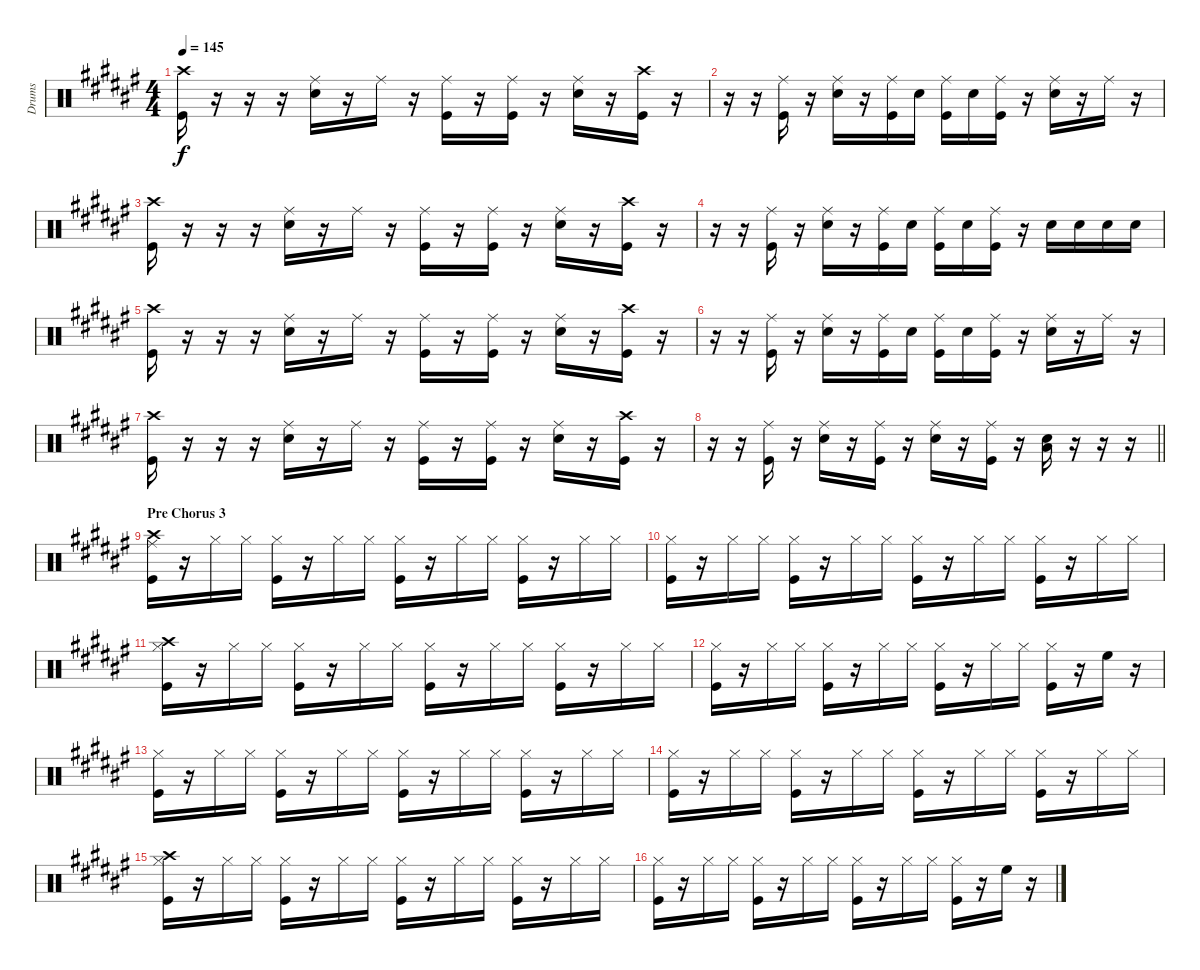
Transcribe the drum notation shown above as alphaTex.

\track ("Drums" "Drums") {instrument percussion}
\staff {score}
\articulation defaults
\ts (4 4)
\tempo 145
\clef neutral
\ks f#
("Kick (hit)" "Crash high (hit)").16{dy f} r.16 r.16 r.16 ("Snare (hit) 2" "Ride (middle)").16 r.16 "Ride (middle)".16 r.16 ("Kick (hit)" "Ride (middle)").16 r.16 ("Kick (hit)" "Ride (middle)").16 r.16 ("Snare (hit) 2" "Ride (middle)").16 r.16 ("Kick (hit)" "Crash high (hit)").16 r.16 |
r.16 r.16 ("Kick (hit)" "Ride (middle)").16 r.16 ("Snare (hit) 2" "Ride (middle)").16 r.16 ("Kick (hit)" "Ride (middle)").16 "Snare (hit) 2".16 ("Kick (hit)" "Ride (middle)").16 "Snare (hit) 2".16 ("Kick (hit)" "Ride (middle)").16 r.16 ("Snare (hit) 2" "Ride (middle)").16 r.16 "Ride (middle)".16 r.16 |
("Kick (hit)" "Crash high (hit)").16 r.16 r.16 r.16 ("Snare (hit) 2" "Ride (middle)").16 r.16 "Ride (middle)".16 r.16 ("Kick (hit)" "Ride (middle)").16 r.16 ("Kick (hit)" "Ride (middle)").16 r.16 ("Snare (hit) 2" "Ride (middle)").16 r.16 ("Kick (hit)" "Crash high (hit)").16 r.16 |
r.16 r.16 ("Kick (hit)" "Ride (middle)").16 r.16 ("Snare (hit) 2" "Ride (middle)").16 r.16 ("Kick (hit)" "Ride (middle)").16 "Snare (hit) 2".16 ("Kick (hit)" "Ride (middle)").16 "Snare (hit) 2".16 ("Kick (hit)" "Ride (middle)").16 r.16 "Snare (hit) 2".16 "Snare (hit) 2".16 "Snare (hit) 2".16 "Snare (hit) 2".16 |
("Kick (hit)" "Crash high (hit)").16 r.16 r.16 r.16 ("Snare (hit) 2" "Ride (middle)").16 r.16 "Ride (middle)".16 r.16 ("Kick (hit)" "Ride (middle)").16 r.16 ("Kick (hit)" "Ride (middle)").16 r.16 ("Snare (hit) 2" "Ride (middle)").16 r.16 ("Kick (hit)" "Crash high (hit)").16 r.16 |
r.16 r.16 ("Kick (hit)" "Ride (middle)").16 r.16 ("Snare (hit) 2" "Ride (middle)").16 r.16 ("Kick (hit)" "Ride (middle)").16 "Snare (hit) 2".16 ("Kick (hit)" "Ride (middle)").16 "Snare (hit) 2".16 ("Kick (hit)" "Ride (middle)").16 r.16 ("Snare (hit) 2" "Ride (middle)").16 r.16 "Ride (middle)".16 r.16 |
("Kick (hit)" "Crash high (hit)").16 r.16 r.16 r.16 ("Snare (hit) 2" "Ride (middle)").16 r.16 "Ride (middle)".16 r.16 ("Kick (hit)" "Ride (middle)").16 r.16 ("Kick (hit)" "Ride (middle)").16 r.16 ("Snare (hit) 2" "Ride (middle)").16 r.16 ("Kick (hit)" "Crash high (hit)").16 r.16 |
\barLineRight lightlight
r.16 r.16 ("Kick (hit)" "Ride (middle)").16 r.16 ("Snare (hit) 2" "Ride (middle)").16 r.16 ("Kick (hit)" "Ride (middle)").16 r.16 ("Snare (hit) 2" "Ride (middle)").16 r.16 ("Kick (hit)" "Ride (middle)").16 r.16 ("Snare (hit) 2" "Low Floor Tom (hit)").16 r.16 r.16 r.16 |
\section ("" "Pre Chorus 3")
("Crash high (hit)" "Kick (hit)" "Ride (middle)").16 r.16 "Hi-Hat (closed)".16 "Hi-Hat (closed)".16 ("Hi-Hat (closed)" "Kick (hit)").16 r.16 "Hi-Hat (closed)".16 "Hi-Hat (closed)".16 ("Hi-Hat (closed)" "Kick (hit)").16 r.16 "Hi-Hat (closed)".16 "Hi-Hat (closed)".16 ("Hi-Hat (closed)" "Kick (hit)").16 r.16 "Hi-Hat (closed)".16 "Hi-Hat (closed)".16 |
("Hi-Hat (closed)" "Kick (hit)").16 r.16 "Hi-Hat (closed)".16 "Hi-Hat (closed)".16 ("Hi-Hat (closed)" "Kick (hit)").16 r.16 "Hi-Hat (closed)".16 "Hi-Hat (closed)".16 ("Hi-Hat (closed)" "Kick (hit)").16 r.16 "Hi-Hat (closed)".16 "Hi-Hat (closed)".16 ("Hi-Hat (closed)" "Kick (hit)").16 r.16 "Hi-Hat (closed)".16 "Hi-Hat (closed)".16 |
("Hi-Hat (closed)" "Kick (hit)" "Crash high (hit)").16 r.16 "Hi-Hat (closed)".16 "Hi-Hat (closed)".16 ("Hi-Hat (closed)" "Kick (hit)").16 r.16 "Hi-Hat (closed)".16 "Hi-Hat (closed)".16 ("Hi-Hat (closed)" "Kick (hit)").16 r.16 "Hi-Hat (closed)".16 "Hi-Hat (closed)".16 ("Hi-Hat (closed)" "Kick (hit)").16 r.16 "Hi-Hat (closed)".16 "Hi-Hat (closed)".16 |
("Hi-Hat (closed)" "Kick (hit)").16 r.16 "Hi-Hat (closed)".16 "Hi-Hat (closed)".16 ("Hi-Hat (closed)" "Kick (hit)").16 r.16 "Hi-Hat (closed)".16 "Hi-Hat (closed)".16 ("Hi-Hat (closed)" "Kick (hit)").16 r.16 "Hi-Hat (closed)".16 "Hi-Hat (closed)".16 ("Hi-Hat (closed)" "Kick (hit)").16 r.16 "High Floor Tom (hit)".16 r.16 |
("Hi-Hat (closed)" "Kick (hit)").16 r.16 "Hi-Hat (closed)".16 "Hi-Hat (closed)".16 ("Hi-Hat (closed)" "Kick (hit)").16 r.16 "Hi-Hat (closed)".16 "Hi-Hat (closed)".16 ("Hi-Hat (closed)" "Kick (hit)").16 r.16 "Hi-Hat (closed)".16 "Hi-Hat (closed)".16 ("Hi-Hat (closed)" "Kick (hit)").16 r.16 "Hi-Hat (closed)".16 "Hi-Hat (closed)".16 |
("Hi-Hat (closed)" "Kick (hit)").16 r.16 "Hi-Hat (closed)".16 "Hi-Hat (closed)".16 ("Hi-Hat (closed)" "Kick (hit)").16 r.16 "Hi-Hat (closed)".16 "Hi-Hat (closed)".16 ("Hi-Hat (closed)" "Kick (hit)").16 r.16 "Hi-Hat (closed)".16 "Hi-Hat (closed)".16 ("Hi-Hat (closed)" "Kick (hit)").16 r.16 "Hi-Hat (closed)".16 "Hi-Hat (closed)".16 |
("Hi-Hat (closed)" "Kick (hit)" "Crash high (hit)").16 r.16 "Hi-Hat (closed)".16 "Hi-Hat (closed)".16 ("Hi-Hat (closed)" "Kick (hit)").16 r.16 "Hi-Hat (closed)".16 "Hi-Hat (closed)".16 ("Hi-Hat (closed)" "Kick (hit)").16 r.16 "Hi-Hat (closed)".16 "Hi-Hat (closed)".16 ("Hi-Hat (closed)" "Kick (hit)").16 r.16 "Hi-Hat (closed)".16 "Hi-Hat (closed)".16 |
("Hi-Hat (closed)" "Kick (hit)").16 r.16 "Hi-Hat (closed)".16 "Hi-Hat (closed)".16 ("Hi-Hat (closed)" "Kick (hit)").16 r.16 "Hi-Hat (closed)".16 "Hi-Hat (closed)".16 ("Hi-Hat (closed)" "Kick (hit)").16 r.16 "Hi-Hat (closed)".16 "Hi-Hat (closed)".16 ("Hi-Hat (closed)" "Kick (hit)").16 r.16 "High Floor Tom (hit)".16 r.16
